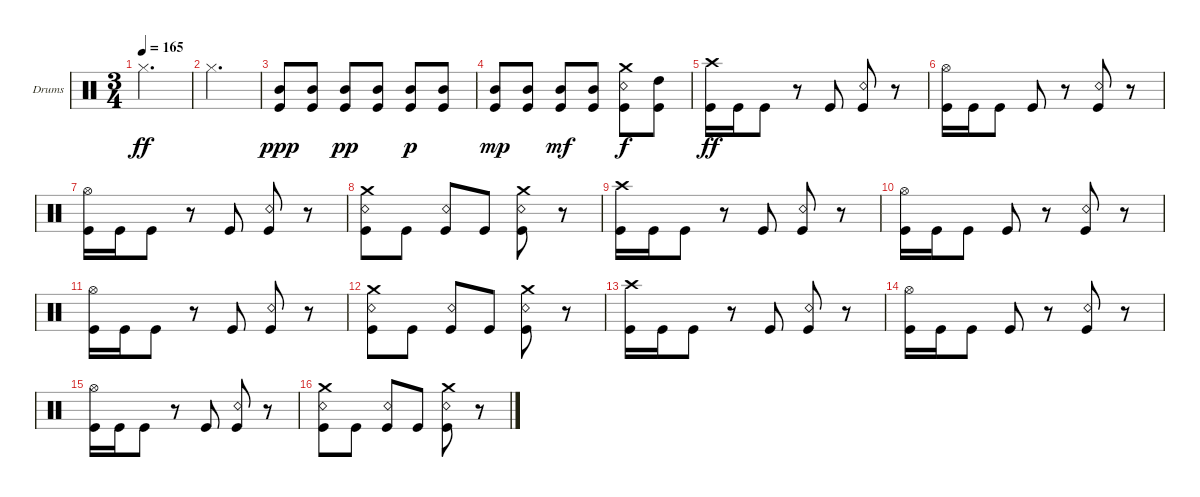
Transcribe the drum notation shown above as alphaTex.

\bracketExtendMode groupsimilarinstruments
\firstSystemTrackNameOrientation horizontal
\otherSystemsTrackNameOrientation horizontal
\track ("Kaleb - Drums" "Drums") {instrument percussion}
\staff {score}
\articulation defaults
\ts (3 4)
\tempo 165
\clef neutral
\ks c "Hi-Hat (closed)".2{d dy ff}
|
"Hi-Hat (closed)".2{d} |
("Kick (hit)" "Mid Tom (hit)").8{dy ppp} ("Kick (hit)" "Mid Tom (hit)").8 ("Kick (hit)" "Mid Tom (hit)").8{dy pp} ("Kick (hit)" "Mid Tom (hit)").8 ("Kick (hit)" "Mid Tom (hit)").8{dy p} ("Kick (hit)" "Mid Tom (hit)").8 |
("Kick (hit)" "Mid Tom (hit)").8{dy mp} ("Kick (hit)" "Mid Tom (hit)").8 ("Kick (hit)" "Mid Tom (hit)").8{dy mf} ("Kick (hit)" "Mid Tom (hit)").8 ("Kick (hit)" "Snare (rim shot)" "Crash medium (hit)").8{dy f} ("Kick (hit)" "High Tom (hit)").8 |
("Kick (hit)" "Crash high (hit)").16{dy ff} "Kick (hit)".16 "Kick (hit)".8 r.8 "Kick (hit)".8 ("Kick (hit)" "Snare (rim shot)").8 r.8 |
("Kick (hit)" "Hi-Hat (open)").16 "Kick (hit)".16 "Kick (hit)".8 "Kick (hit)".8 r.8 ("Kick (hit)" "Snare (rim shot)").8 r.8 |
("Kick (hit)" "Hi-Hat (open)").16 "Kick (hit)".16 "Kick (hit)".8 r.8 "Kick (hit)".8 ("Kick (hit)" "Snare (rim shot)").8 r.8 |
("Kick (hit)" "Crash medium (hit)" "Snare (rim shot)").8 "Kick (hit)".8 ("Kick (hit)" "Snare (rim shot)").8 "Kick (hit)".8 ("Kick (hit)" "Crash medium (hit)" "Snare (rim shot)").8 r.8 |
("Kick (hit)" "Crash high (hit)").16 "Kick (hit)".16 "Kick (hit)".8 r.8 "Kick (hit)".8 ("Kick (hit)" "Snare (rim shot)").8 r.8 |
("Kick (hit)" "Hi-Hat (open)").16 "Kick (hit)".16 "Kick (hit)".8 "Kick (hit)".8 r.8 ("Kick (hit)" "Snare (rim shot)").8 r.8 |
("Kick (hit)" "Hi-Hat (open)").16 "Kick (hit)".16 "Kick (hit)".8 r.8 "Kick (hit)".8 ("Kick (hit)" "Snare (rim shot)").8 r.8 |
("Kick (hit)" "Crash medium (hit)" "Snare (rim shot)").8 "Kick (hit)".8 ("Kick (hit)" "Snare (rim shot)").8 "Kick (hit)".8 ("Kick (hit)" "Crash medium (hit)" "Snare (rim shot)").8 r.8 |
("Kick (hit)" "Crash high (hit)").16 "Kick (hit)".16 "Kick (hit)".8 r.8 "Kick (hit)".8 ("Kick (hit)" "Snare (rim shot)").8 r.8 |
("Kick (hit)" "Hi-Hat (open)").16 "Kick (hit)".16 "Kick (hit)".8 "Kick (hit)".8 r.8 ("Kick (hit)" "Snare (rim shot)").8 r.8 |
("Kick (hit)" "Hi-Hat (open)").16 "Kick (hit)".16 "Kick (hit)".8 r.8 "Kick (hit)".8 ("Kick (hit)" "Snare (rim shot)").8 r.8 |
("Kick (hit)" "Crash medium (hit)" "Snare (rim shot)").8 "Kick (hit)".8 ("Kick (hit)" "Snare (rim shot)").8 "Kick (hit)".8 ("Kick (hit)" "Crash medium (hit)" "Snare (rim shot)").8 r.8
